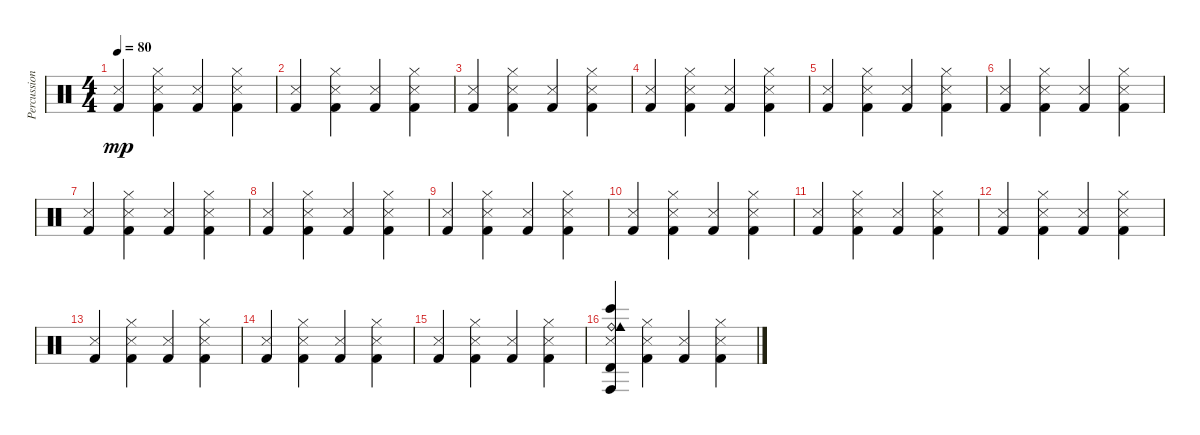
\track ("Percussion" "Percussion") {instrument percussion}
\staff {score}
\articulation defaults
\ts (4 4)
\tempo 80
\clef neutral
\ks c
("Snare (side stick) 3" "Kick (hit) 2").4{dy mp} ("Snare (side stick) 3" "Hi-Hat (closed)" "Kick (hit) 2").4 ("Snare (side stick) 3" "Kick (hit) 2").4 ("Snare (side stick) 3" "Hi-Hat (closed)" "Kick (hit) 2").4 |
("Snare (side stick) 3" "Kick (hit) 2").4 ("Snare (side stick) 3" "Hi-Hat (closed)" "Kick (hit) 2").4 ("Snare (side stick) 3" "Kick (hit) 2").4 ("Snare (side stick) 3" "Hi-Hat (closed)" "Kick (hit) 2").4 |
("Snare (side stick) 3" "Kick (hit) 2").4 ("Snare (side stick) 3" "Hi-Hat (closed)" "Kick (hit) 2").4 ("Snare (side stick) 3" "Kick (hit) 2").4 ("Snare (side stick) 3" "Hi-Hat (closed)" "Kick (hit) 2").4 |
("Snare (side stick) 3" "Kick (hit) 2").4 ("Snare (side stick) 3" "Hi-Hat (closed)" "Kick (hit) 2").4 ("Snare (side stick) 3" "Kick (hit) 2").4 ("Snare (side stick) 3" "Hi-Hat (closed)" "Kick (hit) 2").4 |
("Snare (side stick) 3" "Kick (hit) 2").4 ("Snare (side stick) 3" "Hi-Hat (closed)" "Kick (hit) 2").4 ("Snare (side stick) 3" "Kick (hit) 2").4 ("Snare (side stick) 3" "Hi-Hat (closed)" "Kick (hit) 2").4 |
("Snare (side stick) 3" "Kick (hit) 2").4 ("Snare (side stick) 3" "Hi-Hat (closed)" "Kick (hit) 2").4 ("Snare (side stick) 3" "Kick (hit) 2").4 ("Snare (side stick) 3" "Hi-Hat (closed)" "Kick (hit) 2").4 |
("Snare (side stick) 3" "Kick (hit) 2").4 ("Snare (side stick) 3" "Hi-Hat (closed)" "Kick (hit) 2").4 ("Snare (side stick) 3" "Kick (hit) 2").4 ("Snare (side stick) 3" "Hi-Hat (closed)" "Kick (hit) 2").4 |
("Snare (side stick) 3" "Kick (hit) 2").4 ("Snare (side stick) 3" "Hi-Hat (closed)" "Kick (hit) 2").4 ("Snare (side stick) 3" "Kick (hit) 2").4 ("Snare (side stick) 3" "Hi-Hat (closed)" "Kick (hit) 2").4 |
("Snare (side stick) 3" "Kick (hit) 2").4 ("Snare (side stick) 3" "Hi-Hat (closed)" "Kick (hit) 2").4 ("Snare (side stick) 3" "Kick (hit) 2").4 ("Snare (side stick) 3" "Hi-Hat (closed)" "Kick (hit) 2").4 |
("Snare (side stick) 3" "Kick (hit) 2").4 ("Snare (side stick) 3" "Hi-Hat (closed)" "Kick (hit) 2").4 ("Snare (side stick) 3" "Kick (hit) 2").4 ("Snare (side stick) 3" "Hi-Hat (closed)" "Kick (hit) 2").4 |
("Snare (side stick) 3" "Kick (hit) 2").4 ("Snare (side stick) 3" "Hi-Hat (closed)" "Kick (hit) 2").4 ("Snare (side stick) 3" "Kick (hit) 2").4 ("Snare (side stick) 3" "Hi-Hat (closed)" "Kick (hit) 2").4 |
("Snare (side stick) 3" "Kick (hit) 2").4 ("Snare (side stick) 3" "Hi-Hat (closed)" "Kick (hit) 2").4 ("Snare (side stick) 3" "Kick (hit) 2").4 ("Snare (side stick) 3" "Hi-Hat (closed)" "Kick (hit) 2").4 |
("Snare (side stick) 3" "Kick (hit) 2").4 ("Snare (side stick) 3" "Hi-Hat (closed)" "Kick (hit) 2").4 ("Snare (side stick) 3" "Kick (hit) 2").4 ("Snare (side stick) 3" "Hi-Hat (closed)" "Kick (hit) 2").4 |
("Snare (side stick) 3" "Kick (hit) 2").4 ("Snare (side stick) 3" "Hi-Hat (closed)" "Kick (hit) 2").4 ("Snare (side stick) 3" "Kick (hit) 2").4 ("Snare (side stick) 3" "Hi-Hat (closed)" "Kick (hit) 2").4 |
("Snare (side stick) 3" "Kick (hit) 2").4 ("Snare (side stick) 3" "Hi-Hat (closed)" "Kick (hit) 2").4 ("Snare (side stick) 3" "Kick (hit) 2").4 ("Snare (side stick) 3" "Hi-Hat (closed)" "Kick (hit) 2").4 |
("Timbale high (hit)" "Ride (bell)" "Cowbell medium (hit)" "Bongo High (hit)" "Conga high (hit)" "Snare (side stick) 3").4 ("Snare (side stick) 3" "Hi-Hat (closed)" "Kick (hit) 2").4 ("Snare (side stick) 3" "Kick (hit) 2").4 ("Snare (side stick) 3" "Hi-Hat (closed)" "Kick (hit) 2").4
